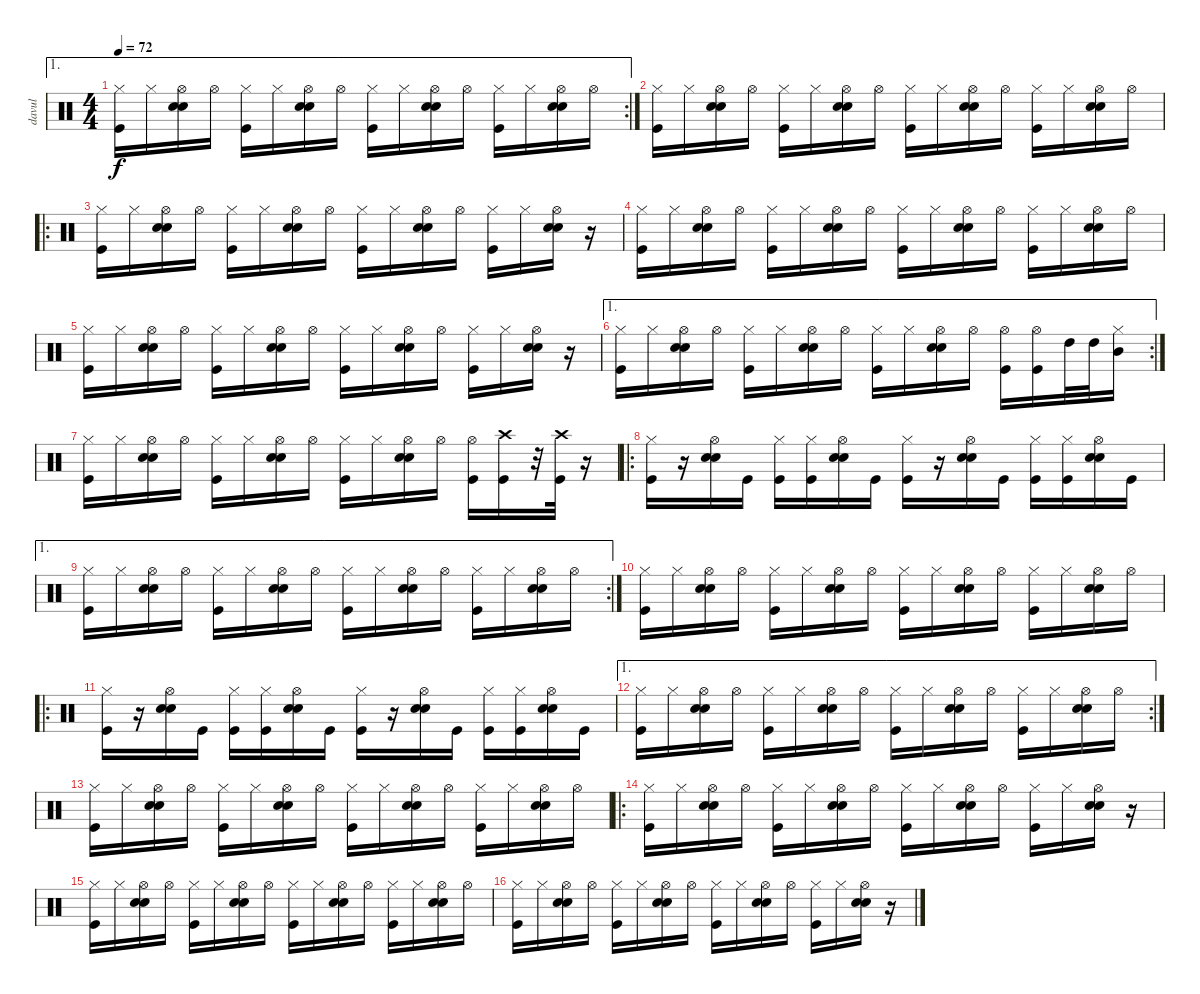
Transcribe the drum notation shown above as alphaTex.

\track ("davul" "davul") {instrument percussion}
\staff {score}
\articulation defaults
\ae 1
\rc 2
\ts (4 4)
\tempo 72
\clef neutral
\ks c
("Hi-Hat (closed)" "Kick (hit)").16{dy f} "Hi-Hat (closed)".16 ("Hi-Hat (open)" "Snare (hit) 2" "Electric Snare (hit)").16 "Hi-Hat (open)".16 ("Hi-Hat (closed)" "Kick (hit)").16 "Hi-Hat (closed)".16 ("Hi-Hat (open)" "Snare (hit) 2" "Electric Snare (hit)").16 "Hi-Hat (open)".16 ("Hi-Hat (closed)" "Kick (hit)").16 "Hi-Hat (closed)".16 ("Hi-Hat (open)" "Snare (hit) 2" "Electric Snare (hit)").16 "Hi-Hat (open)".16 ("Hi-Hat (closed)" "Kick (hit)").16 "Hi-Hat (closed)".16 ("Hi-Hat (open)" "Snare (hit) 2" "Electric Snare (hit)").16 "Hi-Hat (open)".16 |
("Hi-Hat (closed)" "Kick (hit)").16 "Hi-Hat (closed)".16 ("Hi-Hat (open)" "Snare (hit) 2" "Electric Snare (hit)").16 "Hi-Hat (open)".16 ("Hi-Hat (closed)" "Kick (hit)").16 "Hi-Hat (closed)".16 ("Hi-Hat (open)" "Snare (hit) 2" "Electric Snare (hit)").16 "Hi-Hat (open)".16 ("Hi-Hat (closed)" "Kick (hit)").16 "Hi-Hat (closed)".16 ("Hi-Hat (open)" "Snare (hit) 2" "Electric Snare (hit)").16 "Hi-Hat (open)".16 ("Hi-Hat (closed)" "Kick (hit)").16 "Hi-Hat (closed)".16 ("Hi-Hat (open)" "Snare (hit) 2" "Electric Snare (hit)").16 "Hi-Hat (open)".16 |
\ro
("Hi-Hat (closed)" "Kick (hit)").16 "Hi-Hat (closed)".16 ("Hi-Hat (open)" "Snare (hit) 2" "Electric Snare (hit)").16 "Hi-Hat (open)".16 ("Hi-Hat (closed)" "Kick (hit)").16 "Hi-Hat (closed)".16 ("Hi-Hat (open)" "Snare (hit) 2" "Electric Snare (hit)").16 "Hi-Hat (open)".16 ("Hi-Hat (closed)" "Kick (hit)").16 "Hi-Hat (closed)".16 ("Hi-Hat (open)" "Snare (hit) 2" "Electric Snare (hit)").16 "Hi-Hat (open)".16 ("Hi-Hat (closed)" "Kick (hit)").16 "Hi-Hat (closed)".16 ("Hi-Hat (open)" "Snare (hit) 2" "Electric Snare (hit)").16 r.16 |
("Hi-Hat (closed)" "Kick (hit)").16 "Hi-Hat (closed)".16 ("Hi-Hat (open)" "Snare (hit) 2" "Electric Snare (hit)").16 "Hi-Hat (open)".16 ("Hi-Hat (closed)" "Kick (hit)").16 "Hi-Hat (closed)".16 ("Hi-Hat (open)" "Snare (hit) 2" "Electric Snare (hit)").16 "Hi-Hat (open)".16 ("Hi-Hat (closed)" "Kick (hit)").16 "Hi-Hat (closed)".16 ("Hi-Hat (open)" "Snare (hit) 2" "Electric Snare (hit)").16 "Hi-Hat (open)".16 ("Hi-Hat (closed)" "Kick (hit)").16 "Hi-Hat (closed)".16 ("Hi-Hat (open)" "Snare (hit) 2" "Electric Snare (hit)").16 "Hi-Hat (open)".16 |
("Hi-Hat (closed)" "Kick (hit)").16 "Hi-Hat (closed)".16 ("Hi-Hat (open)" "Snare (hit) 2" "Electric Snare (hit)").16 "Hi-Hat (open)".16 ("Hi-Hat (closed)" "Kick (hit)").16 "Hi-Hat (closed)".16 ("Hi-Hat (open)" "Snare (hit) 2" "Electric Snare (hit)").16 "Hi-Hat (open)".16 ("Hi-Hat (closed)" "Kick (hit)").16 "Hi-Hat (closed)".16 ("Hi-Hat (open)" "Snare (hit) 2" "Electric Snare (hit)").16 "Hi-Hat (open)".16 ("Hi-Hat (closed)" "Kick (hit)").16 "Hi-Hat (closed)".16 ("Hi-Hat (open)" "Snare (hit) 2" "Electric Snare (hit)").16 r.16 |
\ae 1
\rc 2
("Hi-Hat (closed)" "Kick (hit)").16 "Hi-Hat (closed)".16 ("Hi-Hat (open)" "Snare (hit) 2" "Electric Snare (hit)").16 "Hi-Hat (open)".16 ("Hi-Hat (closed)" "Kick (hit)").16 "Hi-Hat (closed)".16 ("Hi-Hat (open)" "Snare (hit) 2" "Electric Snare (hit)").16 "Hi-Hat (open)".16 ("Hi-Hat (closed)" "Kick (hit)").16 "Hi-Hat (closed)".16 ("Hi-Hat (open)" "Snare (hit) 2" "Electric Snare (hit)").16 "Hi-Hat (open)".16 ("Hi-Hat (open)" "Kick (hit)").16 ("Hi-Hat (open)" "Kick (hit)").16 "High Tom (hit)".32 "High Tom (hit)".32 ("Hi-Hat (closed)" "Mid Tom (hit)").16 |
("Hi-Hat (closed)" "Kick (hit)").16 "Hi-Hat (closed)".16 ("Hi-Hat (open)" "Snare (hit) 2" "Electric Snare (hit)").16 "Hi-Hat (open)".16 ("Hi-Hat (closed)" "Kick (hit)").16 "Hi-Hat (closed)".16 ("Hi-Hat (open)" "Snare (hit) 2" "Electric Snare (hit)").16 "Hi-Hat (open)".16 ("Hi-Hat (closed)" "Kick (hit)").16 "Hi-Hat (closed)".16 ("Hi-Hat (open)" "Snare (hit) 2" "Electric Snare (hit)").16 "Hi-Hat (open)".16 ("Hi-Hat (open)" "Kick (hit)").16 ("Crash high (hit)" "Kick (hit)").16 r.32 ("Crash high (hit)" "Kick (hit)").32 r.16 |
\ro
("Hi-Hat (closed)" "Kick (hit)").16 r.16 ("Hi-Hat (open)" "Snare (hit) 2" "Electric Snare (hit)").16 "Kick (hit)".16 ("Hi-Hat (closed)" "Kick (hit)").16 ("Hi-Hat (closed)" "Kick (hit)").16 ("Hi-Hat (open)" "Snare (hit) 2" "Electric Snare (hit)").16 "Kick (hit)".16 ("Hi-Hat (closed)" "Kick (hit)").16 r.16 ("Hi-Hat (open)" "Snare (hit) 2" "Electric Snare (hit)").16 "Kick (hit)".16 ("Hi-Hat (closed)" "Kick (hit)").16 ("Hi-Hat (closed)" "Kick (hit)").16 ("Hi-Hat (open)" "Snare (hit) 2" "Electric Snare (hit)").16 "Kick (hit)".16 |
\ae 1
\rc 2
("Hi-Hat (closed)" "Kick (hit)").16 "Hi-Hat (closed)".16 ("Hi-Hat (open)" "Snare (hit) 2" "Electric Snare (hit)").16 "Hi-Hat (open)".16 ("Hi-Hat (closed)" "Kick (hit)").16 "Hi-Hat (closed)".16 ("Hi-Hat (open)" "Snare (hit) 2" "Electric Snare (hit)").16 "Hi-Hat (open)".16 ("Hi-Hat (closed)" "Kick (hit)").16 "Hi-Hat (closed)".16 ("Hi-Hat (open)" "Snare (hit) 2" "Electric Snare (hit)").16 "Hi-Hat (open)".16 ("Hi-Hat (closed)" "Kick (hit)").16 "Hi-Hat (closed)".16 ("Hi-Hat (open)" "Snare (hit) 2" "Electric Snare (hit)").16 "Hi-Hat (open)".16 |
("Hi-Hat (closed)" "Kick (hit)").16 "Hi-Hat (closed)".16 ("Hi-Hat (open)" "Snare (hit) 2" "Electric Snare (hit)").16 "Hi-Hat (open)".16 ("Hi-Hat (closed)" "Kick (hit)").16 "Hi-Hat (closed)".16 ("Hi-Hat (open)" "Snare (hit) 2" "Electric Snare (hit)").16 "Hi-Hat (open)".16 ("Hi-Hat (closed)" "Kick (hit)").16 "Hi-Hat (closed)".16 ("Hi-Hat (open)" "Snare (hit) 2" "Electric Snare (hit)").16 "Hi-Hat (open)".16 ("Hi-Hat (closed)" "Kick (hit)").16 "Hi-Hat (closed)".16 ("Hi-Hat (open)" "Snare (hit) 2" "Electric Snare (hit)").16 "Hi-Hat (open)".16 |
\ro
("Hi-Hat (closed)" "Kick (hit)").16 r.16 ("Hi-Hat (open)" "Snare (hit) 2" "Electric Snare (hit)").16 "Kick (hit)".16 ("Hi-Hat (closed)" "Kick (hit)").16 ("Hi-Hat (closed)" "Kick (hit)").16 ("Hi-Hat (open)" "Snare (hit) 2" "Electric Snare (hit)").16 "Kick (hit)".16 ("Hi-Hat (closed)" "Kick (hit)").16 r.16 ("Hi-Hat (open)" "Snare (hit) 2" "Electric Snare (hit)").16 "Kick (hit)".16 ("Hi-Hat (closed)" "Kick (hit)").16 ("Hi-Hat (closed)" "Kick (hit)").16 ("Hi-Hat (open)" "Snare (hit) 2" "Electric Snare (hit)").16 "Kick (hit)".16 |
\ae 1
\rc 2
("Hi-Hat (closed)" "Kick (hit)").16 "Hi-Hat (closed)".16 ("Hi-Hat (open)" "Snare (hit) 2" "Electric Snare (hit)").16 "Hi-Hat (open)".16 ("Hi-Hat (closed)" "Kick (hit)").16 "Hi-Hat (closed)".16 ("Hi-Hat (open)" "Snare (hit) 2" "Electric Snare (hit)").16 "Hi-Hat (open)".16 ("Hi-Hat (closed)" "Kick (hit)").16 "Hi-Hat (closed)".16 ("Hi-Hat (open)" "Snare (hit) 2" "Electric Snare (hit)").16 "Hi-Hat (open)".16 ("Hi-Hat (closed)" "Kick (hit)").16 "Hi-Hat (closed)".16 ("Hi-Hat (open)" "Snare (hit) 2" "Electric Snare (hit)").16 "Hi-Hat (open)".16 |
("Hi-Hat (closed)" "Kick (hit)").16 "Hi-Hat (closed)".16 ("Hi-Hat (open)" "Snare (hit) 2" "Electric Snare (hit)").16 "Hi-Hat (open)".16 ("Hi-Hat (closed)" "Kick (hit)").16 "Hi-Hat (closed)".16 ("Hi-Hat (open)" "Snare (hit) 2" "Electric Snare (hit)").16 "Hi-Hat (open)".16 ("Hi-Hat (closed)" "Kick (hit)").16 "Hi-Hat (closed)".16 ("Hi-Hat (open)" "Snare (hit) 2" "Electric Snare (hit)").16 "Hi-Hat (open)".16 ("Hi-Hat (closed)" "Kick (hit)").16 "Hi-Hat (closed)".16 ("Hi-Hat (open)" "Snare (hit) 2" "Electric Snare (hit)").16 "Hi-Hat (open)".16 |
\ro
("Hi-Hat (closed)" "Kick (hit)").16 "Hi-Hat (closed)".16 ("Hi-Hat (open)" "Snare (hit) 2" "Electric Snare (hit)").16 "Hi-Hat (open)".16 ("Hi-Hat (closed)" "Kick (hit)").16 "Hi-Hat (closed)".16 ("Hi-Hat (open)" "Snare (hit) 2" "Electric Snare (hit)").16 "Hi-Hat (open)".16 ("Hi-Hat (closed)" "Kick (hit)").16 "Hi-Hat (closed)".16 ("Hi-Hat (open)" "Snare (hit) 2" "Electric Snare (hit)").16 "Hi-Hat (open)".16 ("Hi-Hat (closed)" "Kick (hit)").16 "Hi-Hat (closed)".16 ("Hi-Hat (open)" "Snare (hit) 2" "Electric Snare (hit)").16 r.16 |
("Hi-Hat (closed)" "Kick (hit)").16 "Hi-Hat (closed)".16 ("Hi-Hat (open)" "Snare (hit) 2" "Electric Snare (hit)").16 "Hi-Hat (open)".16 ("Hi-Hat (closed)" "Kick (hit)").16 "Hi-Hat (closed)".16 ("Hi-Hat (open)" "Snare (hit) 2" "Electric Snare (hit)").16 "Hi-Hat (open)".16 ("Hi-Hat (closed)" "Kick (hit)").16 "Hi-Hat (closed)".16 ("Hi-Hat (open)" "Snare (hit) 2" "Electric Snare (hit)").16 "Hi-Hat (open)".16 ("Hi-Hat (closed)" "Kick (hit)").16 "Hi-Hat (closed)".16 ("Hi-Hat (open)" "Snare (hit) 2" "Electric Snare (hit)").16 "Hi-Hat (open)".16 |
("Hi-Hat (closed)" "Kick (hit)").16 "Hi-Hat (closed)".16 ("Hi-Hat (open)" "Snare (hit) 2" "Electric Snare (hit)").16 "Hi-Hat (open)".16 ("Hi-Hat (closed)" "Kick (hit)").16 "Hi-Hat (closed)".16 ("Hi-Hat (open)" "Snare (hit) 2" "Electric Snare (hit)").16 "Hi-Hat (open)".16 ("Hi-Hat (closed)" "Kick (hit)").16 "Hi-Hat (closed)".16 ("Hi-Hat (open)" "Snare (hit) 2" "Electric Snare (hit)").16 "Hi-Hat (open)".16 ("Hi-Hat (closed)" "Kick (hit)").16 "Hi-Hat (closed)".16 ("Hi-Hat (open)" "Snare (hit) 2" "Electric Snare (hit)").16 r.16
